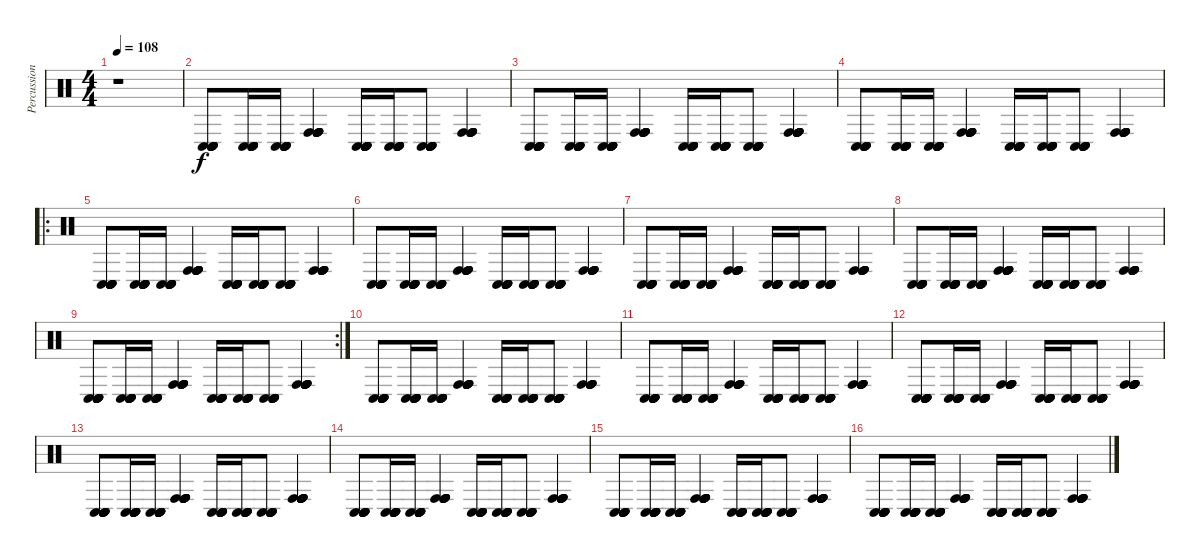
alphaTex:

\track ("Percussions" "Percussion") {instrument percussion}
\staff {score}
\articulation defaults
\ts (4 4)
\tempo 108
\clef neutral
\ks c
r.1{dy f} |
("Conga low (hit)" "Conga low (hit)" "Conga low (hit)" "Conga low (hit)" "Conga low (hit)" "Conga low (hit)").8 ("Conga low (hit)" "Conga low (hit)" "Conga low (hit)" "Conga low (hit)" "Conga low (hit)" "Conga low (hit)").16 ("Conga low (hit)" "Conga low (hit)" "Conga low (hit)" "Conga low (hit)" "Conga low (hit)" "Conga low (hit)").16 ("Conga high (hit)" "Conga high (hit)" "Conga high (hit)" "Conga high (hit)" "Conga high (hit)" "Conga high (hit)").4 ("Conga low (hit)" "Conga low (hit)" "Conga low (hit)" "Conga low (hit)" "Conga low (hit)" "Conga low (hit)").16 ("Conga low (hit)" "Conga low (hit)" "Conga low (hit)" "Conga low (hit)" "Conga low (hit)" "Conga low (hit)").16 ("Conga low (hit)" "Conga low (hit)" "Conga low (hit)" "Conga low (hit)" "Conga low (hit)" "Conga low (hit)").8 ("Conga high (hit)" "Conga high (hit)" "Conga high (hit)" "Conga high (hit)" "Conga high (hit)" "Conga high (hit)").4 |
("Conga low (hit)" "Conga low (hit)" "Conga low (hit)" "Conga low (hit)" "Conga low (hit)" "Conga low (hit)").8 ("Conga low (hit)" "Conga low (hit)" "Conga low (hit)" "Conga low (hit)" "Conga low (hit)" "Conga low (hit)").16 ("Conga low (hit)" "Conga low (hit)" "Conga low (hit)" "Conga low (hit)" "Conga low (hit)" "Conga low (hit)").16 ("Conga high (hit)" "Conga high (hit)" "Conga high (hit)" "Conga high (hit)" "Conga high (hit)" "Conga high (hit)").4 ("Conga low (hit)" "Conga low (hit)" "Conga low (hit)" "Conga low (hit)" "Conga low (hit)" "Conga low (hit)").16 ("Conga low (hit)" "Conga low (hit)" "Conga low (hit)" "Conga low (hit)" "Conga low (hit)" "Conga low (hit)").16 ("Conga low (hit)" "Conga low (hit)" "Conga low (hit)" "Conga low (hit)" "Conga low (hit)" "Conga low (hit)").8 ("Conga high (hit)" "Conga high (hit)" "Conga high (hit)" "Conga high (hit)" "Conga high (hit)" "Conga high (hit)").4 |
("Conga low (hit)" "Conga low (hit)" "Conga low (hit)" "Conga low (hit)" "Conga low (hit)" "Conga low (hit)").8 ("Conga low (hit)" "Conga low (hit)" "Conga low (hit)" "Conga low (hit)" "Conga low (hit)" "Conga low (hit)").16 ("Conga low (hit)" "Conga low (hit)" "Conga low (hit)" "Conga low (hit)" "Conga low (hit)" "Conga low (hit)").16 ("Conga high (hit)" "Conga high (hit)" "Conga high (hit)" "Conga high (hit)" "Conga high (hit)" "Conga high (hit)").4 ("Conga low (hit)" "Conga low (hit)" "Conga low (hit)" "Conga low (hit)" "Conga low (hit)" "Conga low (hit)").16 ("Conga low (hit)" "Conga low (hit)" "Conga low (hit)" "Conga low (hit)" "Conga low (hit)" "Conga low (hit)").16 ("Conga low (hit)" "Conga low (hit)" "Conga low (hit)" "Conga low (hit)" "Conga low (hit)" "Conga low (hit)").8 ("Conga high (hit)" "Conga high (hit)" "Conga high (hit)" "Conga high (hit)" "Conga high (hit)" "Conga high (hit)").4 |
\ro
("Conga low (hit)" "Conga low (hit)" "Conga low (hit)" "Conga low (hit)" "Conga low (hit)" "Conga low (hit)").8 ("Conga low (hit)" "Conga low (hit)" "Conga low (hit)" "Conga low (hit)" "Conga low (hit)" "Conga low (hit)").16 ("Conga low (hit)" "Conga low (hit)" "Conga low (hit)" "Conga low (hit)" "Conga low (hit)" "Conga low (hit)").16 ("Conga high (hit)" "Conga high (hit)" "Conga high (hit)" "Conga high (hit)" "Conga high (hit)" "Conga high (hit)").4 ("Conga low (hit)" "Conga low (hit)" "Conga low (hit)" "Conga low (hit)" "Conga low (hit)" "Conga low (hit)").16 ("Conga low (hit)" "Conga low (hit)" "Conga low (hit)" "Conga low (hit)" "Conga low (hit)" "Conga low (hit)").16 ("Conga low (hit)" "Conga low (hit)" "Conga low (hit)" "Conga low (hit)" "Conga low (hit)" "Conga low (hit)").8 ("Conga high (hit)" "Conga high (hit)" "Conga high (hit)" "Conga high (hit)" "Conga high (hit)" "Conga high (hit)").4 |
("Conga low (hit)" "Conga low (hit)" "Conga low (hit)" "Conga low (hit)" "Conga low (hit)" "Conga low (hit)").8 ("Conga low (hit)" "Conga low (hit)" "Conga low (hit)" "Conga low (hit)" "Conga low (hit)" "Conga low (hit)").16 ("Conga low (hit)" "Conga low (hit)" "Conga low (hit)" "Conga low (hit)" "Conga low (hit)" "Conga low (hit)").16 ("Conga high (hit)" "Conga high (hit)" "Conga high (hit)" "Conga high (hit)" "Conga high (hit)" "Conga high (hit)").4 ("Conga low (hit)" "Conga low (hit)" "Conga low (hit)" "Conga low (hit)" "Conga low (hit)" "Conga low (hit)").16 ("Conga low (hit)" "Conga low (hit)" "Conga low (hit)" "Conga low (hit)" "Conga low (hit)" "Conga low (hit)").16 ("Conga low (hit)" "Conga low (hit)" "Conga low (hit)" "Conga low (hit)" "Conga low (hit)" "Conga low (hit)").8 ("Conga high (hit)" "Conga high (hit)" "Conga high (hit)" "Conga high (hit)" "Conga high (hit)" "Conga high (hit)").4 |
("Conga low (hit)" "Conga low (hit)" "Conga low (hit)" "Conga low (hit)" "Conga low (hit)" "Conga low (hit)").8 ("Conga low (hit)" "Conga low (hit)" "Conga low (hit)" "Conga low (hit)" "Conga low (hit)" "Conga low (hit)").16 ("Conga low (hit)" "Conga low (hit)" "Conga low (hit)" "Conga low (hit)" "Conga low (hit)" "Conga low (hit)").16 ("Conga high (hit)" "Conga high (hit)" "Conga high (hit)" "Conga high (hit)" "Conga high (hit)" "Conga high (hit)").4 ("Conga low (hit)" "Conga low (hit)" "Conga low (hit)" "Conga low (hit)" "Conga low (hit)" "Conga low (hit)").16 ("Conga low (hit)" "Conga low (hit)" "Conga low (hit)" "Conga low (hit)" "Conga low (hit)" "Conga low (hit)").16 ("Conga low (hit)" "Conga low (hit)" "Conga low (hit)" "Conga low (hit)" "Conga low (hit)" "Conga low (hit)").8 ("Conga high (hit)" "Conga high (hit)" "Conga high (hit)" "Conga high (hit)" "Conga high (hit)" "Conga high (hit)").4 |
("Conga low (hit)" "Conga low (hit)" "Conga low (hit)" "Conga low (hit)" "Conga low (hit)" "Conga low (hit)").8 ("Conga low (hit)" "Conga low (hit)" "Conga low (hit)" "Conga low (hit)" "Conga low (hit)" "Conga low (hit)").16 ("Conga low (hit)" "Conga low (hit)" "Conga low (hit)" "Conga low (hit)" "Conga low (hit)" "Conga low (hit)").16 ("Conga high (hit)" "Conga high (hit)" "Conga high (hit)" "Conga high (hit)" "Conga high (hit)" "Conga high (hit)").4 ("Conga low (hit)" "Conga low (hit)" "Conga low (hit)" "Conga low (hit)" "Conga low (hit)" "Conga low (hit)").16 ("Conga low (hit)" "Conga low (hit)" "Conga low (hit)" "Conga low (hit)" "Conga low (hit)" "Conga low (hit)").16 ("Conga low (hit)" "Conga low (hit)" "Conga low (hit)" "Conga low (hit)" "Conga low (hit)" "Conga low (hit)").8 ("Conga high (hit)" "Conga high (hit)" "Conga high (hit)" "Conga high (hit)" "Conga high (hit)" "Conga high (hit)").4 |
\rc 2
("Conga low (hit)" "Conga low (hit)" "Conga low (hit)" "Conga low (hit)" "Conga low (hit)" "Conga low (hit)").8 ("Conga low (hit)" "Conga low (hit)" "Conga low (hit)" "Conga low (hit)" "Conga low (hit)" "Conga low (hit)").16 ("Conga low (hit)" "Conga low (hit)" "Conga low (hit)" "Conga low (hit)" "Conga low (hit)" "Conga low (hit)").16 ("Conga high (hit)" "Conga high (hit)" "Conga high (hit)" "Conga high (hit)" "Conga high (hit)" "Conga high (hit)").4 ("Conga low (hit)" "Conga low (hit)" "Conga low (hit)" "Conga low (hit)" "Conga low (hit)" "Conga low (hit)").16 ("Conga low (hit)" "Conga low (hit)" "Conga low (hit)" "Conga low (hit)" "Conga low (hit)" "Conga low (hit)").16 ("Conga low (hit)" "Conga low (hit)" "Conga low (hit)" "Conga low (hit)" "Conga low (hit)" "Conga low (hit)").8 ("Conga high (hit)" "Conga high (hit)" "Conga high (hit)" "Conga high (hit)" "Conga high (hit)" "Conga high (hit)").4 |
("Conga low (hit)" "Conga low (hit)" "Conga low (hit)" "Conga low (hit)" "Conga low (hit)" "Conga low (hit)").8 ("Conga low (hit)" "Conga low (hit)" "Conga low (hit)" "Conga low (hit)" "Conga low (hit)" "Conga low (hit)").16 ("Conga low (hit)" "Conga low (hit)" "Conga low (hit)" "Conga low (hit)" "Conga low (hit)" "Conga low (hit)").16 ("Conga high (hit)" "Conga high (hit)" "Conga high (hit)" "Conga high (hit)" "Conga high (hit)" "Conga high (hit)").4 ("Conga low (hit)" "Conga low (hit)" "Conga low (hit)" "Conga low (hit)" "Conga low (hit)" "Conga low (hit)").16 ("Conga low (hit)" "Conga low (hit)" "Conga low (hit)" "Conga low (hit)" "Conga low (hit)" "Conga low (hit)").16 ("Conga low (hit)" "Conga low (hit)" "Conga low (hit)" "Conga low (hit)" "Conga low (hit)" "Conga low (hit)").8 ("Conga high (hit)" "Conga high (hit)" "Conga high (hit)" "Conga high (hit)" "Conga high (hit)" "Conga high (hit)").4 |
("Conga low (hit)" "Conga low (hit)" "Conga low (hit)" "Conga low (hit)" "Conga low (hit)" "Conga low (hit)").8 ("Conga low (hit)" "Conga low (hit)" "Conga low (hit)" "Conga low (hit)" "Conga low (hit)" "Conga low (hit)").16 ("Conga low (hit)" "Conga low (hit)" "Conga low (hit)" "Conga low (hit)" "Conga low (hit)" "Conga low (hit)").16 ("Conga high (hit)" "Conga high (hit)" "Conga high (hit)" "Conga high (hit)" "Conga high (hit)" "Conga high (hit)").4 ("Conga low (hit)" "Conga low (hit)" "Conga low (hit)" "Conga low (hit)" "Conga low (hit)" "Conga low (hit)").16 ("Conga low (hit)" "Conga low (hit)" "Conga low (hit)" "Conga low (hit)" "Conga low (hit)" "Conga low (hit)").16 ("Conga low (hit)" "Conga low (hit)" "Conga low (hit)" "Conga low (hit)" "Conga low (hit)" "Conga low (hit)").8 ("Conga high (hit)" "Conga high (hit)" "Conga high (hit)" "Conga high (hit)" "Conga high (hit)" "Conga high (hit)").4 |
("Conga low (hit)" "Conga low (hit)" "Conga low (hit)" "Conga low (hit)" "Conga low (hit)" "Conga low (hit)").8 ("Conga low (hit)" "Conga low (hit)" "Conga low (hit)" "Conga low (hit)" "Conga low (hit)" "Conga low (hit)").16 ("Conga low (hit)" "Conga low (hit)" "Conga low (hit)" "Conga low (hit)" "Conga low (hit)" "Conga low (hit)").16 ("Conga high (hit)" "Conga high (hit)" "Conga high (hit)" "Conga high (hit)" "Conga high (hit)" "Conga high (hit)").4 ("Conga low (hit)" "Conga low (hit)" "Conga low (hit)" "Conga low (hit)" "Conga low (hit)" "Conga low (hit)").16 ("Conga low (hit)" "Conga low (hit)" "Conga low (hit)" "Conga low (hit)" "Conga low (hit)" "Conga low (hit)").16 ("Conga low (hit)" "Conga low (hit)" "Conga low (hit)" "Conga low (hit)" "Conga low (hit)" "Conga low (hit)").8 ("Conga high (hit)" "Conga high (hit)" "Conga high (hit)" "Conga high (hit)" "Conga high (hit)" "Conga high (hit)").4 |
("Conga low (hit)" "Conga low (hit)" "Conga low (hit)" "Conga low (hit)" "Conga low (hit)" "Conga low (hit)").8 ("Conga low (hit)" "Conga low (hit)" "Conga low (hit)" "Conga low (hit)" "Conga low (hit)" "Conga low (hit)").16 ("Conga low (hit)" "Conga low (hit)" "Conga low (hit)" "Conga low (hit)" "Conga low (hit)" "Conga low (hit)").16 ("Conga high (hit)" "Conga high (hit)" "Conga high (hit)" "Conga high (hit)" "Conga high (hit)" "Conga high (hit)").4 ("Conga low (hit)" "Conga low (hit)" "Conga low (hit)" "Conga low (hit)" "Conga low (hit)" "Conga low (hit)").16 ("Conga low (hit)" "Conga low (hit)" "Conga low (hit)" "Conga low (hit)" "Conga low (hit)" "Conga low (hit)").16 ("Conga low (hit)" "Conga low (hit)" "Conga low (hit)" "Conga low (hit)" "Conga low (hit)" "Conga low (hit)").8 ("Conga high (hit)" "Conga high (hit)" "Conga high (hit)" "Conga high (hit)" "Conga high (hit)" "Conga high (hit)").4 |
("Conga low (hit)" "Conga low (hit)" "Conga low (hit)" "Conga low (hit)" "Conga low (hit)" "Conga low (hit)").8 ("Conga low (hit)" "Conga low (hit)" "Conga low (hit)" "Conga low (hit)" "Conga low (hit)" "Conga low (hit)").16 ("Conga low (hit)" "Conga low (hit)" "Conga low (hit)" "Conga low (hit)" "Conga low (hit)" "Conga low (hit)").16 ("Conga high (hit)" "Conga high (hit)" "Conga high (hit)" "Conga high (hit)" "Conga high (hit)" "Conga high (hit)").4 ("Conga low (hit)" "Conga low (hit)" "Conga low (hit)" "Conga low (hit)" "Conga low (hit)" "Conga low (hit)").16 ("Conga low (hit)" "Conga low (hit)" "Conga low (hit)" "Conga low (hit)" "Conga low (hit)" "Conga low (hit)").16 ("Conga low (hit)" "Conga low (hit)" "Conga low (hit)" "Conga low (hit)" "Conga low (hit)" "Conga low (hit)").8 ("Conga high (hit)" "Conga high (hit)" "Conga high (hit)" "Conga high (hit)" "Conga high (hit)" "Conga high (hit)").4 |
("Conga low (hit)" "Conga low (hit)" "Conga low (hit)" "Conga low (hit)" "Conga low (hit)" "Conga low (hit)").8 ("Conga low (hit)" "Conga low (hit)" "Conga low (hit)" "Conga low (hit)" "Conga low (hit)" "Conga low (hit)").16 ("Conga low (hit)" "Conga low (hit)" "Conga low (hit)" "Conga low (hit)" "Conga low (hit)" "Conga low (hit)").16 ("Conga high (hit)" "Conga high (hit)" "Conga high (hit)" "Conga high (hit)" "Conga high (hit)" "Conga high (hit)").4 ("Conga low (hit)" "Conga low (hit)" "Conga low (hit)" "Conga low (hit)" "Conga low (hit)" "Conga low (hit)").16 ("Conga low (hit)" "Conga low (hit)" "Conga low (hit)" "Conga low (hit)" "Conga low (hit)" "Conga low (hit)").16 ("Conga low (hit)" "Conga low (hit)" "Conga low (hit)" "Conga low (hit)" "Conga low (hit)" "Conga low (hit)").8 ("Conga high (hit)" "Conga high (hit)" "Conga high (hit)" "Conga high (hit)" "Conga high (hit)" "Conga high (hit)").4 |
("Conga low (hit)" "Conga low (hit)" "Conga low (hit)" "Conga low (hit)" "Conga low (hit)" "Conga low (hit)").8 ("Conga low (hit)" "Conga low (hit)" "Conga low (hit)" "Conga low (hit)" "Conga low (hit)" "Conga low (hit)").16 ("Conga low (hit)" "Conga low (hit)" "Conga low (hit)" "Conga low (hit)" "Conga low (hit)" "Conga low (hit)").16 ("Conga high (hit)" "Conga high (hit)" "Conga high (hit)" "Conga high (hit)" "Conga high (hit)" "Conga high (hit)").4 ("Conga low (hit)" "Conga low (hit)" "Conga low (hit)" "Conga low (hit)" "Conga low (hit)" "Conga low (hit)").16 ("Conga low (hit)" "Conga low (hit)" "Conga low (hit)" "Conga low (hit)" "Conga low (hit)" "Conga low (hit)").16 ("Conga low (hit)" "Conga low (hit)" "Conga low (hit)" "Conga low (hit)" "Conga low (hit)" "Conga low (hit)").8 ("Conga high (hit)" "Conga high (hit)" "Conga high (hit)" "Conga high (hit)" "Conga high (hit)" "Conga high (hit)").4
